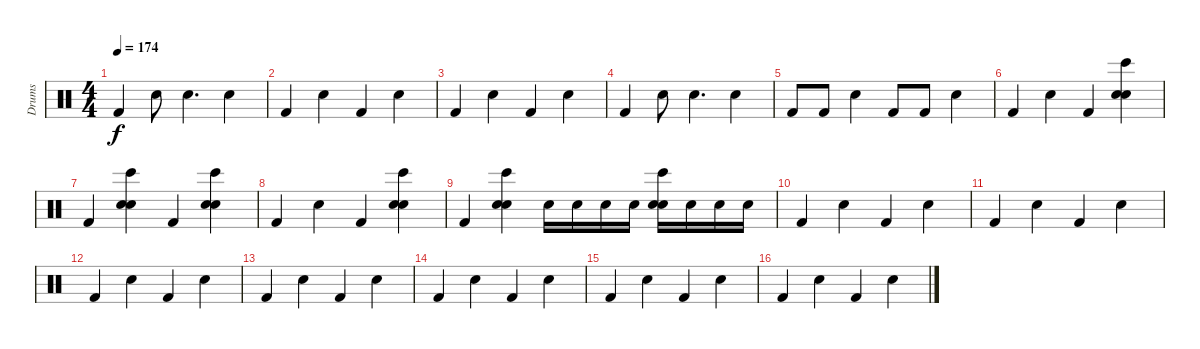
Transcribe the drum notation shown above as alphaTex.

\track ("Drums" "Drums") {instrument percussion}
\staff {score}
\articulation defaults
\ts (4 4)
\tempo 174
\clef neutral
\ks c "Kick (hit) 2".4{dy f} "Electric Snare (hit)".8 "Electric Snare (hit)".4{d} "Electric Snare (hit)".4
|
"Kick (hit) 2".4 "Electric Snare (hit)".4 "Kick (hit) 2".4 "Electric Snare (hit)".4 |
"Kick (hit) 2".4 "Electric Snare (hit)".4 "Kick (hit) 2".4 "Electric Snare (hit)".4 |
"Kick (hit) 2".4 "Electric Snare (hit)".8 "Electric Snare (hit)".4{d} "Electric Snare (hit)".4 |
"Kick (hit) 2".8 "Kick (hit) 2".8 "Electric Snare (hit)".4 "Kick (hit) 2".8 "Kick (hit) 2".8 "Electric Snare (hit)".4 |
"Kick (hit) 2".4 "Electric Snare (hit)".4 "Kick (hit) 2".4 ("Electric Snare (hit)" "Hand Clap (hit)" "Bongo High (hit)").4 |
"Kick (hit) 2".4 ("Electric Snare (hit)" "Hand Clap (hit)" "Bongo High (hit)").4 "Kick (hit) 2".4 ("Electric Snare (hit)" "Hand Clap (hit)" "Bongo High (hit)").4 |
"Kick (hit) 2".4 "Electric Snare (hit)".4 "Kick (hit) 2".4 ("Electric Snare (hit)" "Hand Clap (hit)" "Bongo High (hit)").4 |
"Kick (hit) 2".4 ("Electric Snare (hit)" "Hand Clap (hit)" "Bongo High (hit)").4 "Electric Snare (hit)".16 "Electric Snare (hit)".16 "Electric Snare (hit)".16 "Electric Snare (hit)".16 ("Electric Snare (hit)" "Hand Clap (hit)" "Bongo High (hit)").16 "Electric Snare (hit)".16 "Electric Snare (hit)".16 "Electric Snare (hit)".16 |
"Kick (hit) 2".4 "Electric Snare (hit)".4 "Kick (hit) 2".4 "Electric Snare (hit)".4 |
"Kick (hit) 2".4 "Electric Snare (hit)".4 "Kick (hit) 2".4 "Electric Snare (hit)".4 |
"Kick (hit) 2".4 "Electric Snare (hit)".4 "Kick (hit) 2".4 "Electric Snare (hit)".4 |
"Kick (hit) 2".4 "Electric Snare (hit)".4 "Kick (hit) 2".4 "Electric Snare (hit)".4 |
"Kick (hit) 2".4 "Electric Snare (hit)".4 "Kick (hit) 2".4 "Electric Snare (hit)".4 |
"Kick (hit) 2".4 "Electric Snare (hit)".4 "Kick (hit) 2".4 "Electric Snare (hit)".4 |
"Kick (hit) 2".4 "Electric Snare (hit)".4 "Kick (hit) 2".4 "Electric Snare (hit)".4
